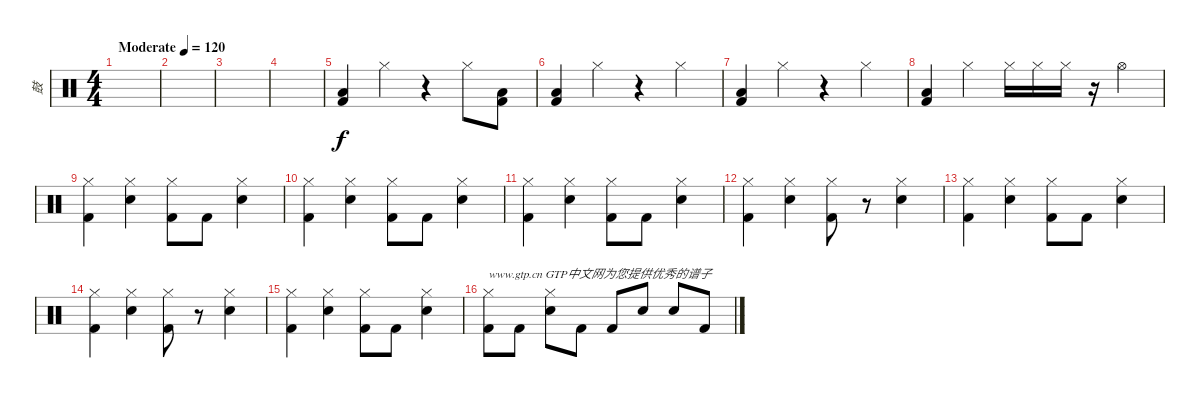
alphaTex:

\track ("鼓" "鼓") {instrument percussion}
\staff {score}
\articulation defaults
\ts (4 4)
\tempo (120 "Moderate")
\clef neutral
\ks c
|
|
|
|
("Low Floor Tom (hit)" "Kick (hit) 2").4 "Hi-Hat (closed)".4 r.4 "Hi-Hat (closed)".8 ("Low Floor Tom (hit)" "Kick (hit) 2").8 |
("Low Floor Tom (hit)" "Kick (hit) 2").4 "Hi-Hat (closed)".4 r.4 "Hi-Hat (closed)".4 |
("Low Floor Tom (hit)" "Kick (hit) 2").4 "Hi-Hat (closed)".4 r.4 "Hi-Hat (closed)".4 |
("Low Floor Tom (hit)" "Kick (hit) 2").4 "Hi-Hat (closed)".4 "Hi-Hat (closed)".16 "Hi-Hat (closed)".16 "Hi-Hat (closed)".16 r.16 "Hi-Hat (open)".4 |
("Hi-Hat (closed)" "Kick (hit) 2").4 ("Hi-Hat (closed)" "Electric Snare (hit)").4 ("Hi-Hat (closed)" "Kick (hit) 2").8 "Kick (hit) 2".8 ("Hi-Hat (closed)" "Electric Snare (hit)").4 |
("Hi-Hat (closed)" "Kick (hit) 2").4 ("Hi-Hat (closed)" "Electric Snare (hit)").4 ("Hi-Hat (closed)" "Kick (hit) 2").8 "Kick (hit) 2".8 ("Hi-Hat (closed)" "Electric Snare (hit)").4 |
("Hi-Hat (closed)" "Kick (hit) 2").4 ("Hi-Hat (closed)" "Electric Snare (hit)").4 ("Hi-Hat (closed)" "Kick (hit) 2").8 "Kick (hit) 2".8 ("Hi-Hat (closed)" "Electric Snare (hit)").4 |
("Hi-Hat (closed)" "Kick (hit) 2").4 ("Hi-Hat (closed)" "Electric Snare (hit)").4 ("Hi-Hat (closed)" "Kick (hit) 2").8 r.8 ("Hi-Hat (closed)" "Electric Snare (hit)").4 |
("Hi-Hat (closed)" "Kick (hit) 2").4 ("Hi-Hat (closed)" "Electric Snare (hit)").4 ("Hi-Hat (closed)" "Kick (hit) 2").8 "Kick (hit) 2".8 ("Hi-Hat (closed)" "Electric Snare (hit)").4 |
("Hi-Hat (closed)" "Kick (hit) 2").4 ("Hi-Hat (closed)" "Electric Snare (hit)").4 ("Hi-Hat (closed)" "Kick (hit) 2").8 r.8 ("Hi-Hat (closed)" "Electric Snare (hit)").4 |
("Hi-Hat (closed)" "Kick (hit) 2").4 ("Hi-Hat (closed)" "Electric Snare (hit)").4 ("Hi-Hat (closed)" "Kick (hit) 2").8 "Kick (hit) 2".8 ("Hi-Hat (closed)" "Electric Snare (hit)").4 |
("Hi-Hat (closed)" "Kick (hit) 2").8{txt "www.gtp.cn GTP中文网为您提供优秀的谱子"} "Kick (hit) 2".8 ("Hi-Hat (closed)" "Electric Snare (hit)").8 "Kick (hit) 2".8 "Kick (hit) 2".8 "Electric Snare (hit)".8 "Electric Snare (hit)".8 "Kick (hit) 2".8
